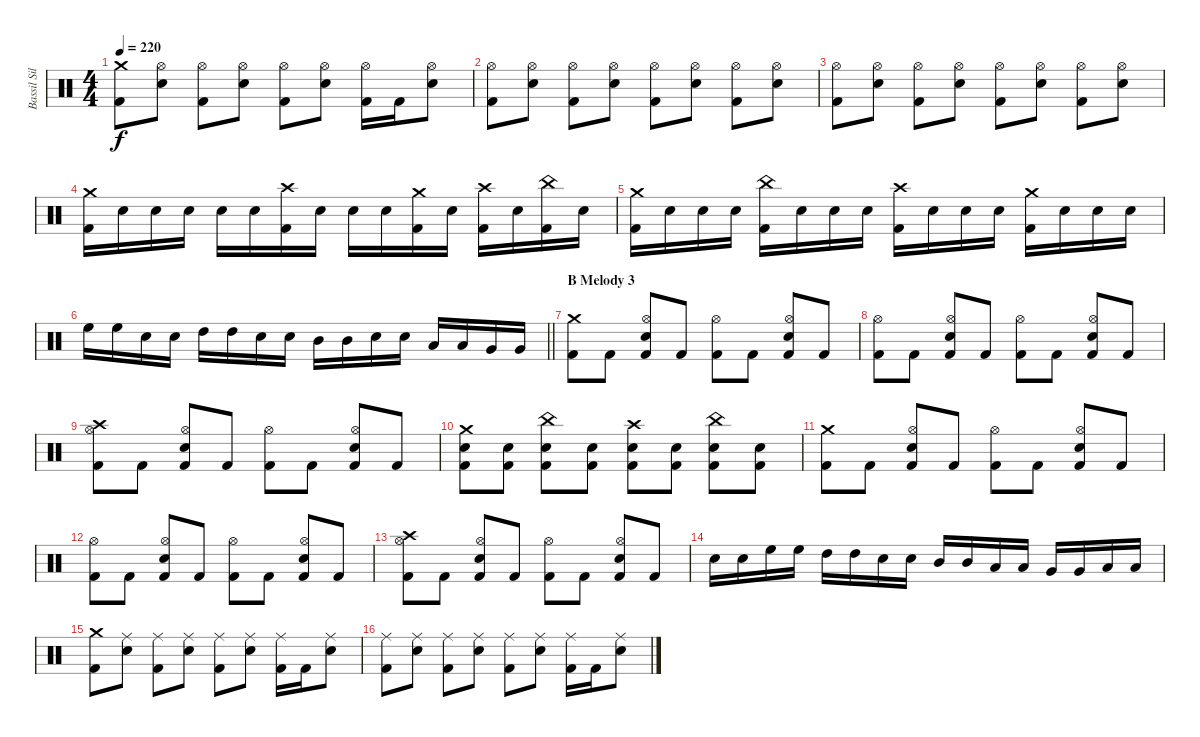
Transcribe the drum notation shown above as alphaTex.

\track ("Bassil Silver-Hajo" "Bassil Sil") {instrument percussion}
\staff {score}
\articulation defaults
\ts (4 4)
\tempo 220
\clef neutral
\ks c
("Crash medium (hit)" "Kick (hit) 2").8{dy f} ("Hi-Hat (open)" "Snare (hit) 2").8 ("Hi-Hat (open)" "Kick (hit) 2").8 ("Hi-Hat (open)" "Snare (hit) 2").8 ("Hi-Hat (open)" "Kick (hit) 2").8 ("Hi-Hat (open)" "Snare (hit) 2").8 ("Hi-Hat (open)" "Kick (hit) 2").16 "Kick (hit) 2".16 ("Hi-Hat (open)" "Snare (hit) 2").8 |
("Hi-Hat (open)" "Kick (hit) 2").8 ("Hi-Hat (open)" "Snare (hit) 2").8 ("Hi-Hat (open)" "Kick (hit) 2").8 ("Hi-Hat (open)" "Snare (hit) 2").8 ("Hi-Hat (open)" "Kick (hit) 2").8 ("Hi-Hat (open)" "Snare (hit) 2").8 ("Hi-Hat (open)" "Kick (hit) 2").8 ("Hi-Hat (open)" "Snare (hit) 2").8 |
("Hi-Hat (open)" "Kick (hit) 2").8 ("Hi-Hat (open)" "Snare (hit) 2").8 ("Hi-Hat (open)" "Kick (hit) 2").8 ("Hi-Hat (open)" "Snare (hit) 2").8 ("Hi-Hat (open)" "Kick (hit) 2").8 ("Hi-Hat (open)" "Snare (hit) 2").8 ("Hi-Hat (open)" "Kick (hit) 2").8 ("Hi-Hat (open)" "Snare (hit) 2").8 |
("Crash medium (hit)" "Kick (hit) 2").16 "Snare (hit) 2".16 "Snare (hit) 2".16 "Snare (hit) 2".16 "Snare (hit) 2".16 "Snare (hit) 2".16 ("Crash high (hit)" "Kick (hit) 2").16 "Snare (hit) 2".16 "Snare (hit) 2".16 "Snare (hit) 2".16 ("Crash medium (hit)" "Kick (hit) 2").16 "Snare (hit) 2".16 ("Crash high (hit)" "Kick (hit) 2").16 "Snare (hit) 2".16 ("China (hit)" "Kick (hit) 2").16 "Snare (hit) 2".16 |
("Crash medium (hit)" "Kick (hit) 2").16 "Snare (hit) 2".16 "Snare (hit) 2".16 "Snare (hit) 2".16 ("China (hit)" "Kick (hit) 2").16 "Snare (hit) 2".16 "Snare (hit) 2".16 "Snare (hit) 2".16 ("Crash high (hit)" "Kick (hit) 2").16 "Snare (hit) 2".16 "Snare (hit) 2".16 "Snare (hit) 2".16 ("Crash medium (hit)" "Kick (hit) 2").16 "Snare (hit) 2".16 "Snare (hit) 2".16 "Snare (hit) 2".16 |
\barLineRight lightlight "High Floor Tom (hit)".16 "High Floor Tom (hit)".16 "Snare (hit) 2".16 "Snare (hit) 2".16 "High Tom (hit)".16 "High Tom (hit)".16 "Snare (hit) 2".16 "Snare (hit) 2".16 "Mid Tom (hit)".16 "Mid Tom (hit)".16 "Snare (hit) 2".16 "Snare (hit) 2".16 "Low Tom (hit)".16 "Low Tom (hit)".16 "Very Low Tom (hit)".16 "Very Low Tom (hit)".16
|
\section ("" "B Melody 3")
("Crash medium (hit)" "Kick (hit) 2").8 "Kick (hit) 2".8 ("Hi-Hat (open)" "Snare (hit) 2" "Kick (hit) 2").8 "Kick (hit) 2".8 ("Hi-Hat (open)" "Kick (hit) 2").8 "Kick (hit) 2".8 ("Hi-Hat (open)" "Snare (hit) 2" "Kick (hit) 2").8 "Kick (hit) 2".8 |
("Hi-Hat (open)" "Kick (hit) 2").8 "Kick (hit) 2".8 ("Hi-Hat (open)" "Snare (hit) 2" "Kick (hit) 2").8 "Kick (hit) 2".8 ("Hi-Hat (open)" "Kick (hit) 2").8 "Kick (hit) 2".8 ("Hi-Hat (open)" "Snare (hit) 2" "Kick (hit) 2").8 "Kick (hit) 2".8 |
("Crash high (hit)" "Hi-Hat (open)" "Kick (hit) 2").8 "Kick (hit) 2".8 ("Hi-Hat (open)" "Snare (hit) 2" "Kick (hit) 2").8 "Kick (hit) 2".8 ("Hi-Hat (open)" "Kick (hit) 2").8 "Kick (hit) 2".8 ("Hi-Hat (open)" "Snare (hit) 2" "Kick (hit) 2").8 "Kick (hit) 2".8 |
("Crash medium (hit)" "Snare (hit) 2" "Kick (hit) 2").8 ("Snare (hit) 2" "Kick (hit) 2").8 ("China (hit)" "Snare (hit) 2" "Kick (hit) 2").8 ("Snare (hit) 2" "Kick (hit) 2").8 ("Crash high (hit)" "Snare (hit) 2" "Kick (hit) 2").8 ("Snare (hit) 2" "Kick (hit) 2").8 ("China (hit)" "Snare (hit) 2" "Kick (hit) 2").8 ("Snare (hit) 2" "Kick (hit) 2").8 |
("Crash medium (hit)" "Kick (hit) 2").8 "Kick (hit) 2".8 ("Hi-Hat (open)" "Snare (hit) 2" "Kick (hit) 2").8 "Kick (hit) 2".8 ("Hi-Hat (open)" "Kick (hit) 2").8 "Kick (hit) 2".8 ("Hi-Hat (open)" "Snare (hit) 2" "Kick (hit) 2").8 "Kick (hit) 2".8 |
("Hi-Hat (open)" "Kick (hit) 2").8 "Kick (hit) 2".8 ("Hi-Hat (open)" "Snare (hit) 2" "Kick (hit) 2").8 "Kick (hit) 2".8 ("Hi-Hat (open)" "Kick (hit) 2").8 "Kick (hit) 2".8 ("Hi-Hat (open)" "Snare (hit) 2" "Kick (hit) 2").8 "Kick (hit) 2".8 |
("Crash high (hit)" "Hi-Hat (open)" "Kick (hit) 2").8 "Kick (hit) 2".8 ("Hi-Hat (open)" "Snare (hit) 2" "Kick (hit) 2").8 "Kick (hit) 2".8 ("Hi-Hat (open)" "Kick (hit) 2").8 "Kick (hit) 2".8 ("Hi-Hat (open)" "Snare (hit) 2" "Kick (hit) 2").8 "Kick (hit) 2".8 |
"Snare (hit) 2".16 "Snare (hit) 2".16 "High Floor Tom (hit)".16 "High Floor Tom (hit)".16 "High Tom (hit)".16 "High Tom (hit)".16 "Snare (hit) 2".16 "Snare (hit) 2".16 "Mid Tom (hit)".16 "Mid Tom (hit)".16 "Low Tom (hit)".16 "Low Tom (hit)".16 "Very Low Tom (hit)".16 "Very Low Tom (hit)".16 "Low Floor Tom (hit)".16 "Low Floor Tom (hit)".16 |
("Crash medium (hit)" "Kick (hit) 2").8 ("Ride (middle)" "Snare (hit) 2").8 ("Ride (middle)" "Kick (hit) 2").8 ("Ride (middle)" "Snare (hit) 2").8 ("Ride (middle)" "Kick (hit) 2").8 ("Ride (middle)" "Snare (hit) 2").8 ("Ride (middle)" "Kick (hit) 2").16 "Kick (hit) 2".16 ("Ride (middle)" "Snare (hit) 2").8 |
("Ride (middle)" "Kick (hit) 2").8 ("Ride (middle)" "Snare (hit) 2").8 ("Ride (middle)" "Kick (hit) 2").8 ("Ride (middle)" "Snare (hit) 2").8 ("Ride (middle)" "Kick (hit) 2").8 ("Ride (middle)" "Snare (hit) 2").8 ("Ride (middle)" "Kick (hit) 2").16 "Kick (hit) 2".16 ("Ride (middle)" "Snare (hit) 2").8
